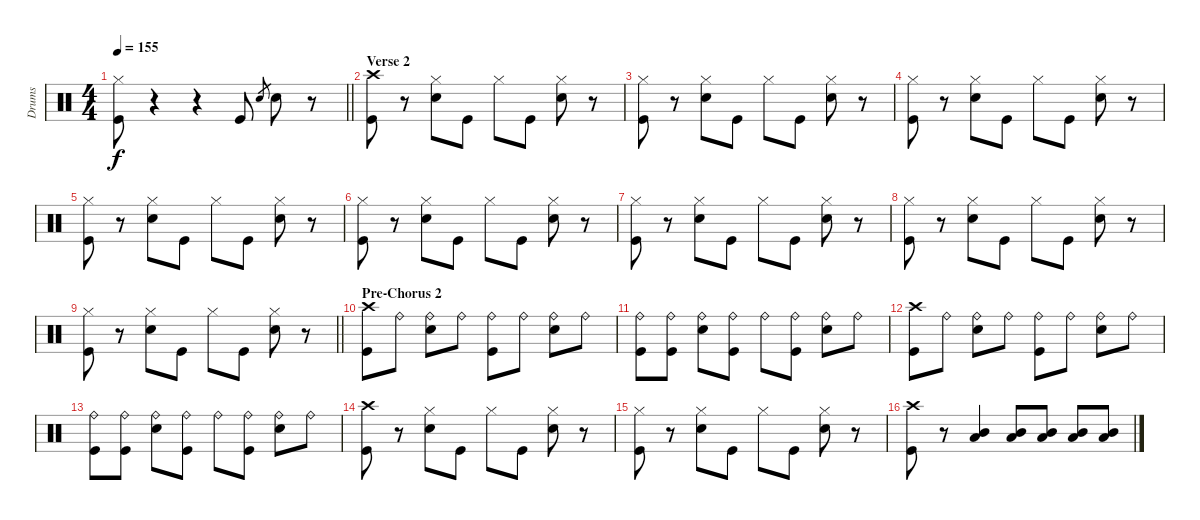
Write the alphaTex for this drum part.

\track ("Drums" "Drums") {instrument percussion}
\staff {score}
\articulation defaults
\ts (4 4)
\tempo 155
\clef neutral
\barLineRight lightlight
\ks c
("Hi-Hat (closed)" "Kick (hit)").8{dy f} r.4 r.4 "Kick (hit)".8 "Snare (hit) 2".8{gr} "Snare (hit) 2".8 r.8 |
\section ("" "Verse 2")
("Crash high (hit)" "Kick (hit)").8 r.8 ("Hi-Hat (closed)" "Snare (hit) 2").8 "Kick (hit)".8 "Hi-Hat (closed)".8 "Kick (hit)".8 ("Hi-Hat (closed)" "Snare (hit) 2").8 r.8 |
("Hi-Hat (closed)" "Kick (hit)").8 r.8 ("Hi-Hat (closed)" "Snare (hit) 2").8 "Kick (hit)".8 "Hi-Hat (closed)".8 "Kick (hit)".8 ("Hi-Hat (closed)" "Snare (hit) 2").8 r.8 |
("Hi-Hat (closed)" "Kick (hit)").8 r.8 ("Hi-Hat (closed)" "Snare (hit) 2").8 "Kick (hit)".8 "Hi-Hat (closed)".8 "Kick (hit)".8 ("Hi-Hat (closed)" "Snare (hit) 2").8 r.8 |
("Hi-Hat (closed)" "Kick (hit)").8 r.8 ("Hi-Hat (closed)" "Snare (hit) 2").8 "Kick (hit)".8 "Hi-Hat (closed)".8 "Kick (hit)".8 ("Hi-Hat (closed)" "Snare (hit) 2").8 r.8 |
("Hi-Hat (closed)" "Kick (hit)").8 r.8 ("Hi-Hat (closed)" "Snare (hit) 2").8 "Kick (hit)".8 "Hi-Hat (closed)".8 "Kick (hit)".8 ("Hi-Hat (closed)" "Snare (hit) 2").8 r.8 |
("Hi-Hat (closed)" "Kick (hit)").8 r.8 ("Hi-Hat (closed)" "Snare (hit) 2").8 "Kick (hit)".8 "Hi-Hat (closed)".8 "Kick (hit)".8 ("Hi-Hat (closed)" "Snare (hit) 2").8 r.8 |
("Hi-Hat (closed)" "Kick (hit)").8 r.8 ("Hi-Hat (closed)" "Snare (hit) 2").8 "Kick (hit)".8 "Hi-Hat (closed)".8 "Kick (hit)".8 ("Hi-Hat (closed)" "Snare (hit) 2").8 r.8 |
\barLineRight lightlight
("Hi-Hat (closed)" "Kick (hit)").8 r.8 ("Hi-Hat (closed)" "Snare (hit) 2").8 "Kick (hit)".8 "Hi-Hat (closed)".8 "Kick (hit)".8 ("Hi-Hat (closed)" "Snare (hit) 2").8 r.8 |
\section ("" "Pre-Chorus 2")
("Crash high (hit)" "Kick (hit)").8 "Ride (bell)".8 ("Ride (bell)" "Snare (hit) 2").8 "Ride (bell)".8 ("Ride (bell)" "Kick (hit)").8 "Ride (bell)".8 ("Ride (bell)" "Snare (hit) 2").8 "Ride (bell)".8 |
("Ride (bell)" "Kick (hit)").8 ("Ride (bell)" "Kick (hit)").8 ("Ride (bell)" "Snare (hit) 2").8 ("Ride (bell)" "Kick (hit)").8 "Ride (bell)".8 ("Ride (bell)" "Kick (hit)").8 ("Ride (bell)" "Snare (hit) 2").8 "Ride (bell)".8 |
("Crash high (hit)" "Kick (hit)").8 "Ride (bell)".8 ("Ride (bell)" "Snare (hit) 2").8 "Ride (bell)".8 ("Ride (bell)" "Kick (hit)").8 "Ride (bell)".8 ("Ride (bell)" "Snare (hit) 2").8 "Ride (bell)".8 |
("Ride (bell)" "Kick (hit)").8 ("Ride (bell)" "Kick (hit)").8 ("Ride (bell)" "Snare (hit) 2").8 ("Ride (bell)" "Kick (hit)").8 "Ride (bell)".8 ("Ride (bell)" "Kick (hit)").8 ("Ride (bell)" "Snare (hit) 2").8 "Ride (bell)".8 |
("Crash high (hit)" "Kick (hit)").8 r.8 ("Hi-Hat (closed)" "Snare (hit) 2").8 "Kick (hit)".8 "Hi-Hat (closed)".8 "Kick (hit)".8 ("Hi-Hat (closed)" "Snare (hit) 2").8 r.8 |
("Hi-Hat (closed)" "Kick (hit)").8 r.8 ("Hi-Hat (closed)" "Snare (hit) 2").8 "Kick (hit)".8 "Hi-Hat (closed)".8 "Kick (hit)".8 ("Hi-Hat (closed)" "Snare (hit) 2").8 r.8 |
("Crash high (hit)" "Kick (hit)").8 r.8 ("Mid Tom (hit)" "Low Floor Tom (hit)").4 ("Mid Tom (hit)" "Low Floor Tom (hit)").8 ("Mid Tom (hit)" "Low Floor Tom (hit)").8 ("Mid Tom (hit)" "Low Floor Tom (hit)").8 ("Mid Tom (hit)" "Low Floor Tom (hit)").8
